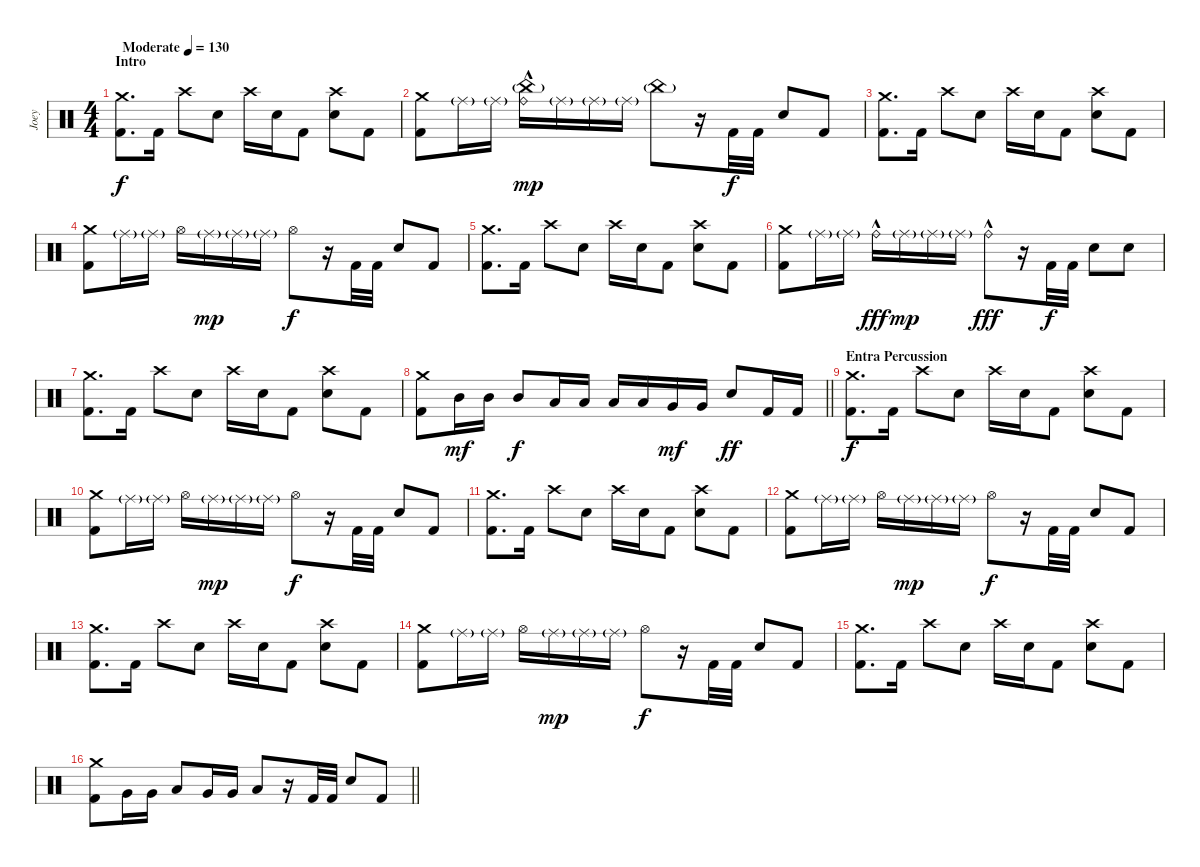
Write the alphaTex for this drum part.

\track ("Joey" "Joey") {instrument percussion}
\staff {score}
\articulation defaults
\ts (4 4)
\section ("" "Intro")
\tempo (130 "Moderate")
\clef neutral
\ks c
("Crash medium (hit)" "Kick (hit) 2").8{d dy f} "Kick (hit) 2".16 "Crash high (hit)".8 "Electric Snare (hit)".8 "Crash high (hit)".16 "Electric Snare (hit)".16 "Kick (hit) 2".8 ("Crash high (hit)" "Electric Snare (hit)").8 "Kick (hit) 2".8 |
("Crash medium (hit)" "Kick (hit) 2").8 "Ride (middle)"{g}.16 "Ride (middle)"{g}.16 ("Ride (bell)"{hac} "China (hit)"{g}).16{dy mp} "Ride (middle)"{g}.16 "Ride (middle)"{g}.16 "Ride (middle)"{g}.16 "China (hit)"{g}.8 r.16 "Kick (hit) 2".32{dy f} "Kick (hit) 2".32 "Electric Snare (hit)".8 "Kick (hit) 2".8 |
("Crash medium (hit)" "Kick (hit) 2").8{d} "Kick (hit) 2".16 "Crash high (hit)".8 "Electric Snare (hit)".8 "Crash high (hit)".16 "Electric Snare (hit)".16 "Kick (hit) 2".8 ("Crash high (hit)" "Electric Snare (hit)").8 "Kick (hit) 2".8 |
("Crash medium (hit)" "Kick (hit) 2").8 "Ride (middle)"{g}.16 "Ride (middle)"{g}.16 "Hi-Hat (open)".16 "Ride (middle)"{g}.16{dy mp} "Ride (middle)"{g}.16 "Ride (middle)"{g}.16 "Hi-Hat (open)".8{dy f} r.16 "Kick (hit) 2".32 "Kick (hit) 2".32 "Electric Snare (hit)".8 "Kick (hit) 2".8 |
("Crash medium (hit)" "Kick (hit) 2").8{d} "Kick (hit) 2".16 "Crash high (hit)".8 "Electric Snare (hit)".8 "Crash high (hit)".16 "Electric Snare (hit)".16 "Kick (hit) 2".8 ("Crash high (hit)" "Electric Snare (hit)").8 "Kick (hit) 2".8 |
("Crash medium (hit)" "Kick (hit) 2").8 "Ride (middle)"{g}.16 "Ride (middle)"{g}.16 "Ride (bell)"{hac}.16{dy fff} "Ride (middle)"{g}.16{dy mp} "Ride (middle)"{g}.16 "Ride (middle)"{g}.16 "Ride (bell)"{hac}.8{dy fff} r.16 "Kick (hit) 2".32{dy f} "Kick (hit) 2".32 "Electric Snare (hit)".8 "Electric Snare (hit)".8 |
("Crash medium (hit)" "Kick (hit) 2").8{d} "Kick (hit) 2".16 "Crash high (hit)".8 "Electric Snare (hit)".8 "Crash high (hit)".16 "Electric Snare (hit)".16 "Kick (hit) 2".8 ("Crash high (hit)" "Electric Snare (hit)").8 "Kick (hit) 2".8 |
\barLineRight lightlight
("Crash medium (hit)" "Kick (hit) 2").8 "Mid Tom (hit)".16{dy mf} "Mid Tom (hit)".16 "Mid Tom (hit)".8{dy f} "Low Tom (hit)".16 "Low Tom (hit)".16 "Low Tom (hit)".16 "Low Tom (hit)".16 "Very Low Tom (hit)".16{dy mf} "Very Low Tom (hit)".16 "Electric Snare (hit)".8{dy ff} "Kick (hit) 2".16 "Kick (hit) 2".16 |
\section ("" "Entra Percussion")
("Crash medium (hit)" "Kick (hit) 2").8{d dy f} "Kick (hit) 2".16 "Crash high (hit)".8 "Electric Snare (hit)".8 "Crash high (hit)".16 "Electric Snare (hit)".16 "Kick (hit) 2".8 ("Crash high (hit)" "Electric Snare (hit)").8 "Kick (hit) 2".8 |
("Crash medium (hit)" "Kick (hit) 2").8 "Ride (middle)"{g}.16 "Ride (middle)"{g}.16 "Hi-Hat (open)".16 "Ride (middle)"{g}.16{dy mp} "Ride (middle)"{g}.16 "Ride (middle)"{g}.16 "Hi-Hat (open)".8{dy f} r.16 "Kick (hit) 2".32 "Kick (hit) 2".32 "Electric Snare (hit)".8 "Kick (hit) 2".8 |
("Crash medium (hit)" "Kick (hit) 2").8{d} "Kick (hit) 2".16 "Crash high (hit)".8 "Electric Snare (hit)".8 "Crash high (hit)".16 "Electric Snare (hit)".16 "Kick (hit) 2".8 ("Crash high (hit)" "Electric Snare (hit)").8 "Kick (hit) 2".8 |
("Crash medium (hit)" "Kick (hit) 2").8 "Ride (middle)"{g}.16 "Ride (middle)"{g}.16 "Hi-Hat (open)".16 "Ride (middle)"{g}.16{dy mp} "Ride (middle)"{g}.16 "Ride (middle)"{g}.16 "Hi-Hat (open)".8{dy f} r.16 "Kick (hit) 2".32 "Kick (hit) 2".32 "Electric Snare (hit)".8 "Kick (hit) 2".8 |
("Crash medium (hit)" "Kick (hit) 2").8{d} "Kick (hit) 2".16 "Crash high (hit)".8 "Electric Snare (hit)".8 "Crash high (hit)".16 "Electric Snare (hit)".16 "Kick (hit) 2".8 ("Crash high (hit)" "Electric Snare (hit)").8 "Kick (hit) 2".8 |
("Crash medium (hit)" "Kick (hit) 2").8 "Ride (middle)"{g}.16 "Ride (middle)"{g}.16 "Hi-Hat (open)".16 "Ride (middle)"{g}.16{dy mp} "Ride (middle)"{g}.16 "Ride (middle)"{g}.16 "Hi-Hat (open)".8{dy f} r.16 "Kick (hit) 2".32 "Kick (hit) 2".32 "Electric Snare (hit)".8 "Kick (hit) 2".8 |
("Crash medium (hit)" "Kick (hit) 2").8{d} "Kick (hit) 2".16 "Crash high (hit)".8 "Electric Snare (hit)".8 "Crash high (hit)".16 "Electric Snare (hit)".16 "Kick (hit) 2".8 ("Crash high (hit)" "Electric Snare (hit)").8 "Kick (hit) 2".8 |
\barLineRight lightlight
("Crash medium (hit)" "Kick (hit) 2").8 "Very Low Tom (hit)".16 "Very Low Tom (hit)".16 "Low Tom (hit)".8 "Very Low Tom (hit)".16 "Very Low Tom (hit)".16 "Low Floor Tom (hit)".8 r.16 "Kick (hit) 2".32 "Kick (hit) 2".32 "Electric Snare (hit)".8 "Kick (hit) 2".8
